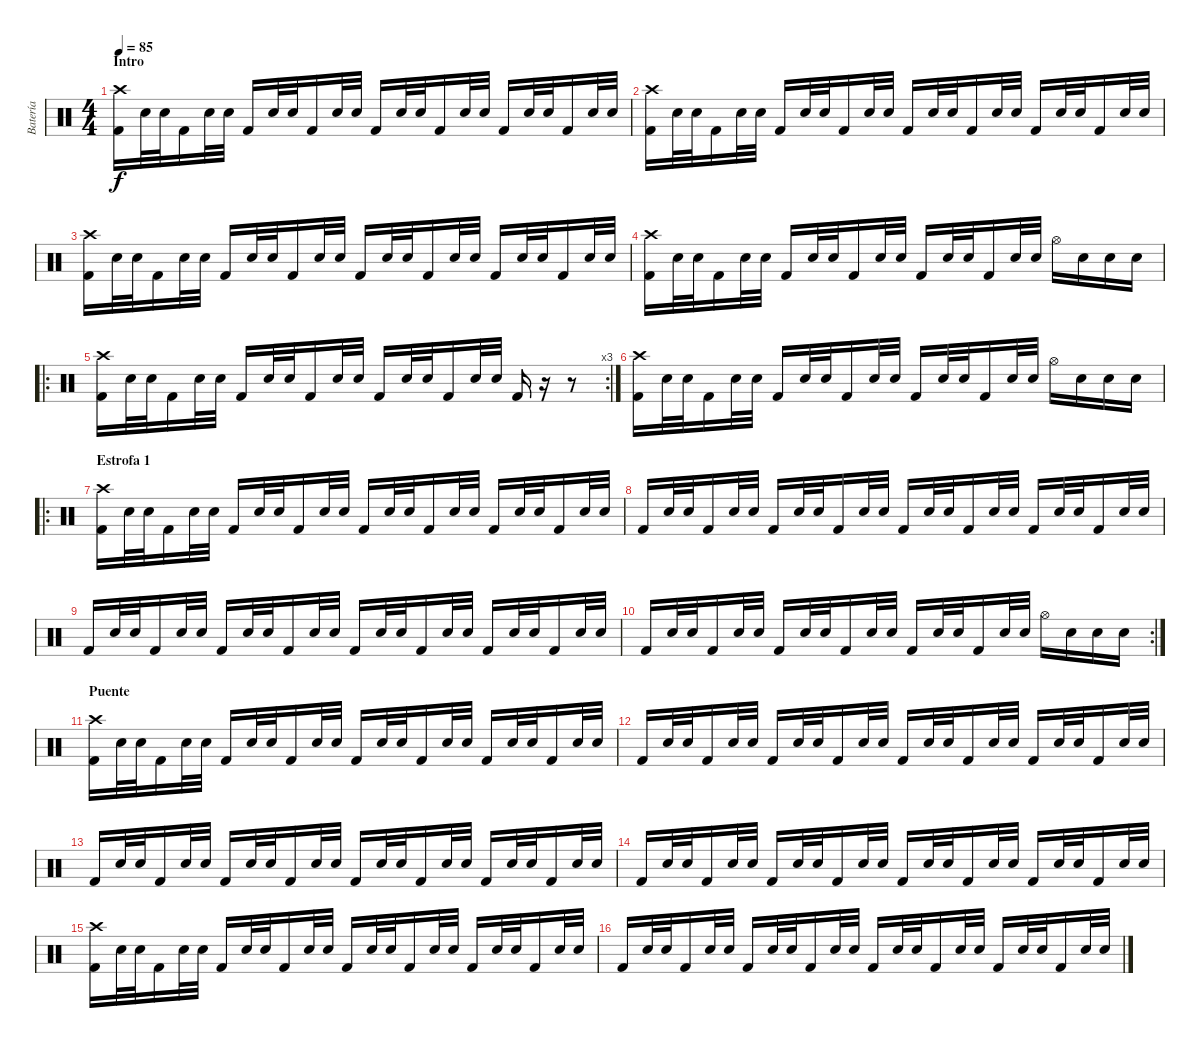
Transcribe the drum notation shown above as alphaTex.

\track ("Batería" "Batería") {instrument percussion}
\staff {score}
\articulation defaults
\ts (4 4)
\section ("" "Intro")
\tempo 85
\clef neutral
\ks c
("Crash high (hit)" "Kick (hit) 2").16{dy f} "Snare (hit) 2".32 "Electric Snare (hit)".32 "Kick (hit) 2".16 "Snare (hit) 2".32 "Electric Snare (hit)".32 "Kick (hit) 2".16 "Snare (hit) 2".32 "Electric Snare (hit)".32 "Kick (hit) 2".16 "Snare (hit) 2".32 "Electric Snare (hit)".32 "Kick (hit) 2".16 "Snare (hit) 2".32 "Electric Snare (hit)".32 "Kick (hit) 2".16 "Snare (hit) 2".32 "Electric Snare (hit)".32 "Kick (hit) 2".16 "Snare (hit) 2".32 "Electric Snare (hit)".32 "Kick (hit) 2".16 "Snare (hit) 2".32 "Electric Snare (hit)".32 |
("Crash high (hit)" "Kick (hit) 2").16 "Snare (hit) 2".32 "Electric Snare (hit)".32 "Kick (hit) 2".16 "Snare (hit) 2".32 "Electric Snare (hit)".32 "Kick (hit) 2".16 "Snare (hit) 2".32 "Electric Snare (hit)".32 "Kick (hit) 2".16 "Snare (hit) 2".32 "Electric Snare (hit)".32 "Kick (hit) 2".16 "Snare (hit) 2".32 "Electric Snare (hit)".32 "Kick (hit) 2".16 "Snare (hit) 2".32 "Electric Snare (hit)".32 "Kick (hit) 2".16 "Snare (hit) 2".32 "Electric Snare (hit)".32 "Kick (hit) 2".16 "Snare (hit) 2".32 "Electric Snare (hit)".32 |
("Crash high (hit)" "Kick (hit) 2").16 "Snare (hit) 2".32 "Electric Snare (hit)".32 "Kick (hit) 2".16 "Snare (hit) 2".32 "Electric Snare (hit)".32 "Kick (hit) 2".16 "Snare (hit) 2".32 "Electric Snare (hit)".32 "Kick (hit) 2".16 "Snare (hit) 2".32 "Electric Snare (hit)".32 "Kick (hit) 2".16 "Snare (hit) 2".32 "Electric Snare (hit)".32 "Kick (hit) 2".16 "Snare (hit) 2".32 "Electric Snare (hit)".32 "Kick (hit) 2".16 "Snare (hit) 2".32 "Electric Snare (hit)".32 "Kick (hit) 2".16 "Snare (hit) 2".32 "Electric Snare (hit)".32 |
("Crash high (hit)" "Kick (hit) 2").16 "Snare (hit) 2".32 "Electric Snare (hit)".32 "Kick (hit) 2".16 "Snare (hit) 2".32 "Electric Snare (hit)".32 "Kick (hit) 2".16 "Snare (hit) 2".32 "Electric Snare (hit)".32 "Kick (hit) 2".16 "Snare (hit) 2".32 "Electric Snare (hit)".32 "Kick (hit) 2".16 "Snare (hit) 2".32 "Electric Snare (hit)".32 "Kick (hit) 2".16 "Snare (hit) 2".32 "Electric Snare (hit)".32 "Hi-Hat (open)".16 "Snare (hit) 2".16 "Snare (hit) 2".16 "Snare (hit) 2".16 |
\ro
\rc 3
("Crash high (hit)" "Kick (hit) 2").16 "Snare (hit) 2".32 "Electric Snare (hit)".32 "Kick (hit) 2".16 "Snare (hit) 2".32 "Electric Snare (hit)".32 "Kick (hit) 2".16 "Snare (hit) 2".32 "Electric Snare (hit)".32 "Kick (hit) 2".16 "Snare (hit) 2".32 "Electric Snare (hit)".32 "Kick (hit) 2".16 "Snare (hit) 2".32 "Electric Snare (hit)".32 "Kick (hit) 2".16 "Snare (hit) 2".32 "Electric Snare (hit)".32 "Kick (hit) 2".16 r.16 r.8 |
("Crash high (hit)" "Kick (hit) 2").16 "Snare (hit) 2".32 "Electric Snare (hit)".32 "Kick (hit) 2".16 "Snare (hit) 2".32 "Electric Snare (hit)".32 "Kick (hit) 2".16 "Snare (hit) 2".32 "Electric Snare (hit)".32 "Kick (hit) 2".16 "Snare (hit) 2".32 "Electric Snare (hit)".32 "Kick (hit) 2".16 "Snare (hit) 2".32 "Electric Snare (hit)".32 "Kick (hit) 2".16 "Snare (hit) 2".32 "Electric Snare (hit)".32 "Hi-Hat (open)".16 "Snare (hit) 2".16 "Snare (hit) 2".16 "Snare (hit) 2".16 |
\ro
\section ("" "Estrofa 1")
("Crash high (hit)" "Kick (hit) 2").16 "Snare (hit) 2".32 "Electric Snare (hit)".32 "Kick (hit) 2".16 "Snare (hit) 2".32 "Electric Snare (hit)".32 "Kick (hit) 2".16 "Snare (hit) 2".32 "Electric Snare (hit)".32 "Kick (hit) 2".16 "Snare (hit) 2".32 "Electric Snare (hit)".32 "Kick (hit) 2".16 "Snare (hit) 2".32 "Electric Snare (hit)".32 "Kick (hit) 2".16 "Snare (hit) 2".32 "Electric Snare (hit)".32 "Kick (hit) 2".16 "Snare (hit) 2".32 "Electric Snare (hit)".32 "Kick (hit) 2".16 "Snare (hit) 2".32 "Electric Snare (hit)".32 |
"Kick (hit) 2".16 "Snare (hit) 2".32 "Electric Snare (hit)".32 "Kick (hit) 2".16 "Snare (hit) 2".32 "Electric Snare (hit)".32 "Kick (hit) 2".16 "Snare (hit) 2".32 "Electric Snare (hit)".32 "Kick (hit) 2".16 "Snare (hit) 2".32 "Electric Snare (hit)".32 "Kick (hit) 2".16 "Snare (hit) 2".32 "Electric Snare (hit)".32 "Kick (hit) 2".16 "Snare (hit) 2".32 "Electric Snare (hit)".32 "Kick (hit) 2".16 "Snare (hit) 2".32 "Electric Snare (hit)".32 "Kick (hit) 2".16 "Snare (hit) 2".32 "Electric Snare (hit)".32 |
"Kick (hit) 2".16 "Snare (hit) 2".32 "Electric Snare (hit)".32 "Kick (hit) 2".16 "Snare (hit) 2".32 "Electric Snare (hit)".32 "Kick (hit) 2".16 "Snare (hit) 2".32 "Electric Snare (hit)".32 "Kick (hit) 2".16 "Snare (hit) 2".32 "Electric Snare (hit)".32 "Kick (hit) 2".16 "Snare (hit) 2".32 "Electric Snare (hit)".32 "Kick (hit) 2".16 "Snare (hit) 2".32 "Electric Snare (hit)".32 "Kick (hit) 2".16 "Snare (hit) 2".32 "Electric Snare (hit)".32 "Kick (hit) 2".16 "Snare (hit) 2".32 "Electric Snare (hit)".32 |
\rc 2 "Kick (hit) 2".16 "Snare (hit) 2".32 "Electric Snare (hit)".32 "Kick (hit) 2".16 "Snare (hit) 2".32 "Electric Snare (hit)".32 "Kick (hit) 2".16 "Snare (hit) 2".32 "Electric Snare (hit)".32 "Kick (hit) 2".16 "Snare (hit) 2".32 "Electric Snare (hit)".32 "Kick (hit) 2".16 "Snare (hit) 2".32 "Electric Snare (hit)".32 "Kick (hit) 2".16 "Snare (hit) 2".32 "Electric Snare (hit)".32 "Hi-Hat (open)".16 "Snare (hit) 2".16 "Snare (hit) 2".16 "Snare (hit) 2".16
|
\section ("" "Puente")
("Crash high (hit)" "Kick (hit) 2").16 "Snare (hit) 2".32 "Electric Snare (hit)".32 "Kick (hit) 2".16 "Snare (hit) 2".32 "Electric Snare (hit)".32 "Kick (hit) 2".16 "Snare (hit) 2".32 "Electric Snare (hit)".32 "Kick (hit) 2".16 "Snare (hit) 2".32 "Electric Snare (hit)".32 "Kick (hit) 2".16 "Snare (hit) 2".32 "Electric Snare (hit)".32 "Kick (hit) 2".16 "Snare (hit) 2".32 "Electric Snare (hit)".32 "Kick (hit) 2".16 "Snare (hit) 2".32 "Electric Snare (hit)".32 "Kick (hit) 2".16 "Snare (hit) 2".32 "Electric Snare (hit)".32 |
"Kick (hit) 2".16 "Snare (hit) 2".32 "Electric Snare (hit)".32 "Kick (hit) 2".16 "Snare (hit) 2".32 "Electric Snare (hit)".32 "Kick (hit) 2".16 "Snare (hit) 2".32 "Electric Snare (hit)".32 "Kick (hit) 2".16 "Snare (hit) 2".32 "Electric Snare (hit)".32 "Kick (hit) 2".16 "Snare (hit) 2".32 "Electric Snare (hit)".32 "Kick (hit) 2".16 "Snare (hit) 2".32 "Electric Snare (hit)".32 "Kick (hit) 2".16 "Snare (hit) 2".32 "Electric Snare (hit)".32 "Kick (hit) 2".16 "Snare (hit) 2".32 "Electric Snare (hit)".32 |
"Kick (hit) 2".16 "Snare (hit) 2".32 "Electric Snare (hit)".32 "Kick (hit) 2".16 "Snare (hit) 2".32 "Electric Snare (hit)".32 "Kick (hit) 2".16 "Snare (hit) 2".32 "Electric Snare (hit)".32 "Kick (hit) 2".16 "Snare (hit) 2".32 "Electric Snare (hit)".32 "Kick (hit) 2".16 "Snare (hit) 2".32 "Electric Snare (hit)".32 "Kick (hit) 2".16 "Snare (hit) 2".32 "Electric Snare (hit)".32 "Kick (hit) 2".16 "Snare (hit) 2".32 "Electric Snare (hit)".32 "Kick (hit) 2".16 "Snare (hit) 2".32 "Electric Snare (hit)".32 |
"Kick (hit) 2".16 "Snare (hit) 2".32 "Electric Snare (hit)".32 "Kick (hit) 2".16 "Snare (hit) 2".32 "Electric Snare (hit)".32 "Kick (hit) 2".16 "Snare (hit) 2".32 "Electric Snare (hit)".32 "Kick (hit) 2".16 "Snare (hit) 2".32 "Electric Snare (hit)".32 "Kick (hit) 2".16 "Snare (hit) 2".32 "Electric Snare (hit)".32 "Kick (hit) 2".16 "Snare (hit) 2".32 "Electric Snare (hit)".32 "Kick (hit) 2".16 "Snare (hit) 2".32 "Electric Snare (hit)".32 "Kick (hit) 2".16 "Snare (hit) 2".32 "Electric Snare (hit)".32 |
("Crash high (hit)" "Kick (hit) 2").16 "Snare (hit) 2".32 "Electric Snare (hit)".32 "Kick (hit) 2".16 "Snare (hit) 2".32 "Electric Snare (hit)".32 "Kick (hit) 2".16 "Snare (hit) 2".32 "Electric Snare (hit)".32 "Kick (hit) 2".16 "Snare (hit) 2".32 "Electric Snare (hit)".32 "Kick (hit) 2".16 "Snare (hit) 2".32 "Electric Snare (hit)".32 "Kick (hit) 2".16 "Snare (hit) 2".32 "Electric Snare (hit)".32 "Kick (hit) 2".16 "Snare (hit) 2".32 "Electric Snare (hit)".32 "Kick (hit) 2".16 "Snare (hit) 2".32 "Electric Snare (hit)".32 |
"Kick (hit) 2".16 "Snare (hit) 2".32 "Electric Snare (hit)".32 "Kick (hit) 2".16 "Snare (hit) 2".32 "Electric Snare (hit)".32 "Kick (hit) 2".16 "Snare (hit) 2".32 "Electric Snare (hit)".32 "Kick (hit) 2".16 "Snare (hit) 2".32 "Electric Snare (hit)".32 "Kick (hit) 2".16 "Snare (hit) 2".32 "Electric Snare (hit)".32 "Kick (hit) 2".16 "Snare (hit) 2".32 "Electric Snare (hit)".32 "Kick (hit) 2".16 "Snare (hit) 2".32 "Electric Snare (hit)".32 "Kick (hit) 2".16 "Snare (hit) 2".32 "Electric Snare (hit)".32
